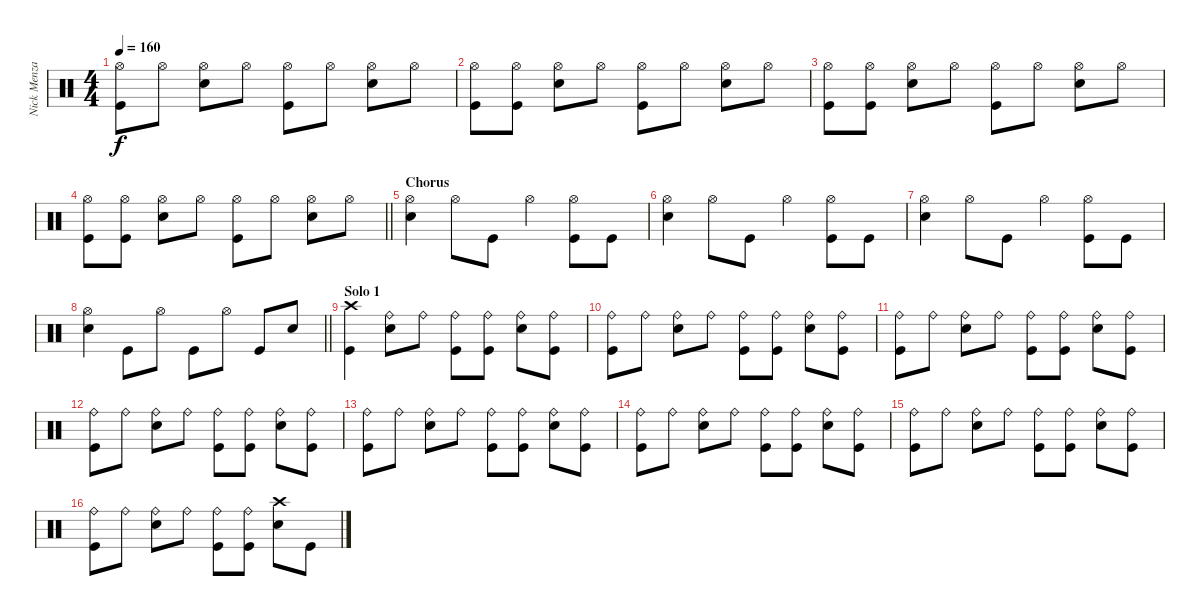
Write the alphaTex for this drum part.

\track ("Nick Menza" "Nick Menza") {instrument percussion}
\staff {score}
\articulation defaults
\ts (4 4)
\tempo 160
\clef neutral
\ks c
("Hi-Hat (open)" "Kick (hit)").8{dy f} "Hi-Hat (open)".8 ("Hi-Hat (open)" "Snare (hit) 2").8 "Hi-Hat (open)".8 ("Hi-Hat (open)" "Kick (hit)").8 "Hi-Hat (open)".8 ("Hi-Hat (open)" "Snare (hit) 2").8 "Hi-Hat (open)".8 |
("Hi-Hat (open)" "Kick (hit)").8 ("Hi-Hat (open)" "Kick (hit)").8 ("Hi-Hat (open)" "Snare (hit) 2").8 "Hi-Hat (open)".8 ("Hi-Hat (open)" "Kick (hit)").8 "Hi-Hat (open)".8 ("Hi-Hat (open)" "Snare (hit) 2").8 "Hi-Hat (open)".8 |
("Hi-Hat (open)" "Kick (hit)").8 ("Hi-Hat (open)" "Kick (hit)").8 ("Hi-Hat (open)" "Snare (hit) 2").8 "Hi-Hat (open)".8 ("Hi-Hat (open)" "Kick (hit)").8 "Hi-Hat (open)".8 ("Hi-Hat (open)" "Snare (hit) 2").8 "Hi-Hat (open)".8 |
\barLineRight lightlight
("Hi-Hat (open)" "Kick (hit)").8 ("Hi-Hat (open)" "Kick (hit)").8 ("Hi-Hat (open)" "Snare (hit) 2").8 "Hi-Hat (open)".8 ("Hi-Hat (open)" "Kick (hit)").8 "Hi-Hat (open)".8 ("Hi-Hat (open)" "Snare (hit) 2").8 "Hi-Hat (open)".8 |
\section ("" "Chorus")
("Hi-Hat (open)" "Snare (hit) 2").4 "Hi-Hat (open)".8 "Kick (hit)".8 "Hi-Hat (open)".4 ("Hi-Hat (open)" "Kick (hit)").8 "Kick (hit)".8 |
("Hi-Hat (open)" "Snare (hit) 2").4 "Hi-Hat (open)".8 "Kick (hit)".8 "Hi-Hat (open)".4 ("Hi-Hat (open)" "Kick (hit)").8 "Kick (hit)".8 |
("Hi-Hat (open)" "Snare (hit) 2").4 "Hi-Hat (open)".8 "Kick (hit)".8 "Hi-Hat (open)".4 ("Hi-Hat (open)" "Kick (hit)").8 "Kick (hit)".8 |
\barLineRight lightlight
("Hi-Hat (open)" "Snare (hit) 2").4 "Kick (hit)".8 "Hi-Hat (open)".8 "Kick (hit)".8 "Hi-Hat (open)".8 "Kick (hit)".8 "Snare (hit) 2".8 |
\section ("" "Solo 1")
("Crash high (hit)" "Kick (hit)").4 ("Ride (bell)" "Snare (hit) 2").8 "Ride (bell)".8 ("Ride (bell)" "Kick (hit)").8 ("Ride (bell)" "Kick (hit)").8 ("Ride (bell)" "Snare (hit) 2").8 ("Ride (bell)" "Kick (hit)").8 |
("Ride (bell)" "Kick (hit)").8 "Ride (bell)".8 ("Ride (bell)" "Snare (hit) 2").8 "Ride (bell)".8 ("Ride (bell)" "Kick (hit)").8 ("Ride (bell)" "Kick (hit)").8 ("Ride (bell)" "Snare (hit) 2").8 ("Ride (bell)" "Kick (hit)").8 |
("Ride (bell)" "Kick (hit)").8 "Ride (bell)".8 ("Ride (bell)" "Snare (hit) 2").8 "Ride (bell)".8 ("Ride (bell)" "Kick (hit)").8 ("Ride (bell)" "Kick (hit)").8 ("Ride (bell)" "Snare (hit) 2").8 ("Ride (bell)" "Kick (hit)").8 |
("Ride (bell)" "Kick (hit)").8 "Ride (bell)".8 ("Ride (bell)" "Snare (hit) 2").8 "Ride (bell)".8 ("Ride (bell)" "Kick (hit)").8 ("Ride (bell)" "Kick (hit)").8 ("Ride (bell)" "Snare (hit) 2").8 ("Ride (bell)" "Kick (hit)").8 |
("Ride (bell)" "Kick (hit)").8 "Ride (bell)".8 ("Ride (bell)" "Snare (hit) 2").8 "Ride (bell)".8 ("Ride (bell)" "Kick (hit)").8 ("Ride (bell)" "Kick (hit)").8 ("Ride (bell)" "Snare (hit) 2").8 ("Ride (bell)" "Kick (hit)").8 |
("Ride (bell)" "Kick (hit)").8 "Ride (bell)".8 ("Ride (bell)" "Snare (hit) 2").8 "Ride (bell)".8 ("Ride (bell)" "Kick (hit)").8 ("Ride (bell)" "Kick (hit)").8 ("Ride (bell)" "Snare (hit) 2").8 ("Ride (bell)" "Kick (hit)").8 |
("Ride (bell)" "Kick (hit)").8 "Ride (bell)".8 ("Ride (bell)" "Snare (hit) 2").8 "Ride (bell)".8 ("Ride (bell)" "Kick (hit)").8 ("Ride (bell)" "Kick (hit)").8 ("Ride (bell)" "Snare (hit) 2").8 ("Ride (bell)" "Kick (hit)").8 |
("Ride (bell)" "Kick (hit)").8 "Ride (bell)".8 ("Ride (bell)" "Snare (hit) 2").8 "Ride (bell)".8 ("Ride (bell)" "Kick (hit)").8 ("Ride (bell)" "Kick (hit)").8 ("Crash high (hit)" "Snare (hit) 2").8 "Kick (hit)".8
